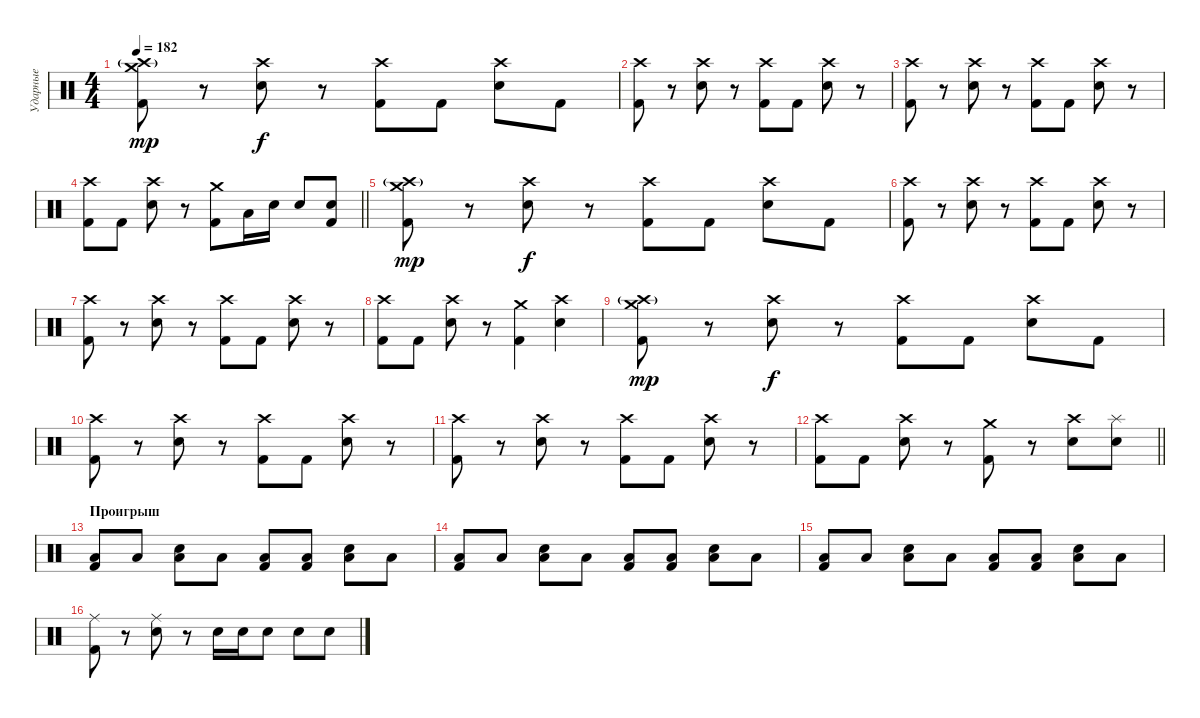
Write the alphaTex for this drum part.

\track ("Ударные" "Ударные") {instrument percussion}
\staff {score}
\articulation defaults
\ts (4 4)
\tempo 182
\clef neutral
\ks c
("Crash medium (hit)" "Crash high (hit)"{g} "Kick (hit) 2").8{dy mp} r.8 ("Crash high (hit)" "Snare (hit) 2").8{dy f} r.8 ("Crash high (hit)" "Kick (hit) 2").8 "Kick (hit) 2".8 ("Crash high (hit)" "Snare (hit) 2").8 "Kick (hit) 2".8 |
("Crash high (hit)" "Kick (hit) 2").8 r.8 ("Crash high (hit)" "Snare (hit) 2").8 r.8 ("Crash high (hit)" "Kick (hit) 2").8 "Kick (hit) 2".8 ("Crash high (hit)" "Snare (hit) 2").8 r.8 |
("Crash high (hit)" "Kick (hit) 2").8 r.8 ("Crash high (hit)" "Snare (hit) 2").8 r.8 ("Crash high (hit)" "Kick (hit) 2").8 "Kick (hit) 2".8 ("Crash high (hit)" "Snare (hit) 2").8 r.8 |
\barLineRight lightlight
("Crash high (hit)" "Kick (hit) 2").8 "Kick (hit) 2".8 ("Crash high (hit)" "Snare (hit) 2").8 r.8 ("Crash medium (hit)" "Kick (hit) 2").8 "Low Tom (hit)".16 "Snare (hit) 2".16 "Snare (hit) 2".8 ("Snare (hit) 2" "Kick (hit) 2").8 |
("Crash medium (hit)" "Crash high (hit)"{g} "Kick (hit) 2").8{dy mp} r.8 ("Crash high (hit)" "Snare (hit) 2").8{dy f} r.8 ("Crash high (hit)" "Kick (hit) 2").8 "Kick (hit) 2".8 ("Crash high (hit)" "Snare (hit) 2").8 "Kick (hit) 2".8 |
("Crash high (hit)" "Kick (hit) 2").8 r.8 ("Crash high (hit)" "Snare (hit) 2").8 r.8 ("Crash high (hit)" "Kick (hit) 2").8 "Kick (hit) 2".8 ("Crash high (hit)" "Snare (hit) 2").8 r.8 |
("Crash high (hit)" "Kick (hit) 2").8 r.8 ("Crash high (hit)" "Snare (hit) 2").8 r.8 ("Crash high (hit)" "Kick (hit) 2").8 "Kick (hit) 2".8 ("Crash high (hit)" "Snare (hit) 2").8 r.8 |
("Crash high (hit)" "Kick (hit) 2").8 "Kick (hit) 2".8 ("Crash high (hit)" "Snare (hit) 2").8 r.8 ("Crash medium (hit)" "Kick (hit) 2").4 ("Crash high (hit)" "Snare (hit) 2").4 |
("Crash medium (hit)" "Crash high (hit)"{g} "Kick (hit) 2").8{dy mp} r.8 ("Crash high (hit)" "Snare (hit) 2").8{dy f} r.8 ("Crash high (hit)" "Kick (hit) 2").8 "Kick (hit) 2".8 ("Crash high (hit)" "Snare (hit) 2").8 "Kick (hit) 2".8 |
("Crash high (hit)" "Kick (hit) 2").8 r.8 ("Crash high (hit)" "Snare (hit) 2").8 r.8 ("Crash high (hit)" "Kick (hit) 2").8 "Kick (hit) 2".8 ("Crash high (hit)" "Snare (hit) 2").8 r.8 |
("Crash high (hit)" "Kick (hit) 2").8 r.8 ("Crash high (hit)" "Snare (hit) 2").8 r.8 ("Crash high (hit)" "Kick (hit) 2").8 "Kick (hit) 2".8 ("Crash high (hit)" "Snare (hit) 2").8 r.8 |
\barLineRight lightlight
("Crash high (hit)" "Kick (hit) 2").8 "Kick (hit) 2".8 ("Crash high (hit)" "Snare (hit) 2").8 r.8 ("Crash medium (hit)" "Kick (hit) 2").8 r.8 ("Crash high (hit)" "Snare (hit) 2").8 ("Splash (hit)" "Snare (hit) 2").8 |
\section ("" "Проигрыш")
("Low Floor Tom (hit)" "Kick (hit) 2").8 "Low Floor Tom (hit)".8 ("Low Floor Tom (hit)" "Snare (hit) 2").8 "Low Floor Tom (hit)".8 ("Low Floor Tom (hit)" "Kick (hit) 2").8 ("Low Floor Tom (hit)" "Kick (hit) 2").8 ("Low Floor Tom (hit)" "Snare (hit) 2").8 "Low Floor Tom (hit)".8 |
("Low Floor Tom (hit)" "Kick (hit) 2").8 "Low Floor Tom (hit)".8 ("Low Floor Tom (hit)" "Snare (hit) 2").8 "Low Floor Tom (hit)".8 ("Low Floor Tom (hit)" "Kick (hit) 2").8 ("Low Floor Tom (hit)" "Kick (hit) 2").8 ("Low Floor Tom (hit)" "Snare (hit) 2").8 "Low Floor Tom (hit)".8 |
("Low Floor Tom (hit)" "Kick (hit) 2").8 "Low Floor Tom (hit)".8 ("Low Floor Tom (hit)" "Snare (hit) 2").8 "Low Floor Tom (hit)".8 ("Low Floor Tom (hit)" "Kick (hit) 2").8 ("Low Floor Tom (hit)" "Kick (hit) 2").8 ("Low Floor Tom (hit)" "Snare (hit) 2").8 "Low Floor Tom (hit)".8 |
("Ride (middle)" "Kick (hit) 2").8 r.8 ("Ride (middle)" "Snare (hit) 2").8 r.8 "Snare (hit) 2".16 "Snare (hit) 2".16 "Snare (hit) 2".8 "Snare (hit) 2".8 "Snare (hit) 2".8
